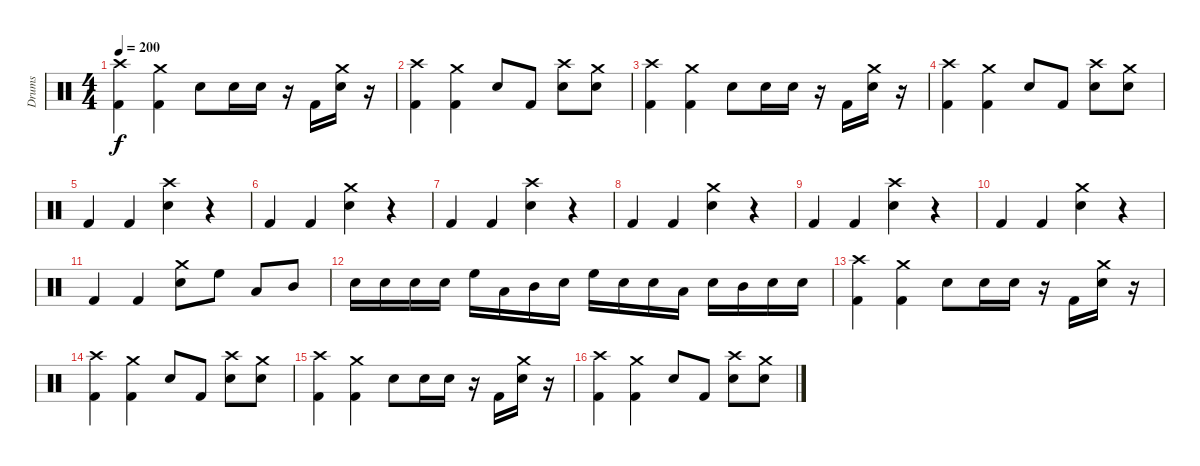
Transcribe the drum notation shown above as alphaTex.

\track ("Drums" "Drums") {instrument percussion}
\staff {score}
\articulation defaults
\ts (4 4)
\tempo 200
\clef neutral
\ks c
("Crash high (hit)" "Kick (hit) 2").4{dy f} ("Crash medium (hit)" "Kick (hit) 2").4 "Electric Snare (hit)".8 "Electric Snare (hit)".16 "Electric Snare (hit)".16 r.16 "Kick (hit) 2".16 ("Electric Snare (hit)" "Crash medium (hit)").16 r.16 |
("Crash high (hit)" "Kick (hit) 2").4 ("Crash medium (hit)" "Kick (hit) 2").4 "Electric Snare (hit)".8 "Kick (hit) 2".8 ("Electric Snare (hit)" "Crash high (hit)").8 ("Electric Snare (hit)" "Crash medium (hit)").8 |
("Crash high (hit)" "Kick (hit) 2").4 ("Crash medium (hit)" "Kick (hit) 2").4 "Electric Snare (hit)".8 "Electric Snare (hit)".16 "Electric Snare (hit)".16 r.16 "Kick (hit) 2".16 ("Electric Snare (hit)" "Crash medium (hit)").16 r.16 |
("Crash high (hit)" "Kick (hit) 2").4 ("Crash medium (hit)" "Kick (hit) 2").4 "Electric Snare (hit)".8 "Kick (hit) 2".8 ("Electric Snare (hit)" "Crash high (hit)").8 ("Electric Snare (hit)" "Crash medium (hit)").8 |
"Kick (hit) 2".4 "Kick (hit) 2".4 ("Electric Snare (hit)" "Crash high (hit)").4 r.4 |
"Kick (hit) 2".4 "Kick (hit) 2".4 ("Electric Snare (hit)" "Crash medium (hit)").4 r.4 |
"Kick (hit) 2".4 "Kick (hit) 2".4 ("Electric Snare (hit)" "Crash high (hit)").4 r.4 |
"Kick (hit) 2".4 "Kick (hit) 2".4 ("Electric Snare (hit)" "Crash medium (hit)").4 r.4 |
"Kick (hit) 2".4 "Kick (hit) 2".4 ("Electric Snare (hit)" "Crash high (hit)").4 r.4 |
"Kick (hit) 2".4 "Kick (hit) 2".4 ("Electric Snare (hit)" "Crash medium (hit)").4 r.4 |
"Kick (hit) 2".4 "Kick (hit) 2".4 ("Electric Snare (hit)" "Crash medium (hit)").8 "High Floor Tom (hit)".8 "Low Tom (hit)".8 "Mid Tom (hit)".8 |
"Electric Snare (hit)".16 "Electric Snare (hit)".16 "Electric Snare (hit)".16 "Electric Snare (hit)".16 "High Floor Tom (hit)".16 "Low Tom (hit)".16 "Mid Tom (hit)".16 "Electric Snare (hit)".16 "High Floor Tom (hit)".16 "Electric Snare (hit)".16 "Electric Snare (hit)".16 "Low Tom (hit)".16 "Electric Snare (hit)".16 "Mid Tom (hit)".16 "Electric Snare (hit)".16 "Electric Snare (hit)".16 |
("Crash high (hit)" "Kick (hit) 2").4 ("Crash medium (hit)" "Kick (hit) 2").4 "Electric Snare (hit)".8 "Electric Snare (hit)".16 "Electric Snare (hit)".16 r.16 "Kick (hit) 2".16 ("Electric Snare (hit)" "Crash medium (hit)").16 r.16 |
("Crash high (hit)" "Kick (hit) 2").4 ("Crash medium (hit)" "Kick (hit) 2").4 "Electric Snare (hit)".8 "Kick (hit) 2".8 ("Electric Snare (hit)" "Crash high (hit)").8 ("Electric Snare (hit)" "Crash medium (hit)").8 |
("Crash high (hit)" "Kick (hit) 2").4 ("Crash medium (hit)" "Kick (hit) 2").4 "Electric Snare (hit)".8 "Electric Snare (hit)".16 "Electric Snare (hit)".16 r.16 "Kick (hit) 2".16 ("Electric Snare (hit)" "Crash medium (hit)").16 r.16 |
("Crash high (hit)" "Kick (hit) 2").4 ("Crash medium (hit)" "Kick (hit) 2").4 "Electric Snare (hit)".8 "Kick (hit) 2".8 ("Electric Snare (hit)" "Crash high (hit)").8 ("Electric Snare (hit)" "Crash medium (hit)").8
